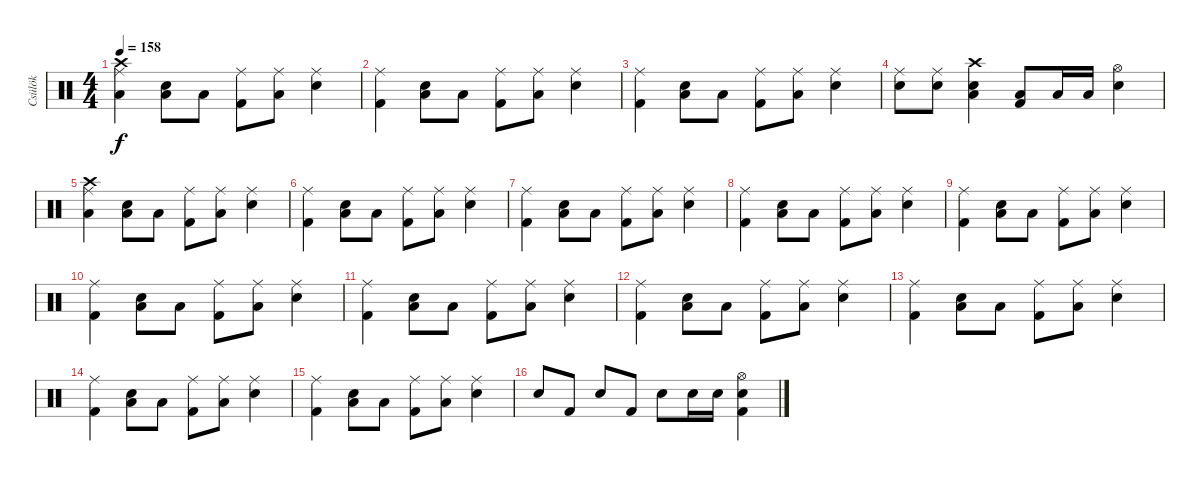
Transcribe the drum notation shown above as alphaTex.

\track ("Csülök" "Csülök") {instrument percussion}
\staff {score}
\articulation defaults
\ts (4 4)
\tempo 158
\clef neutral
\ks c
("Crash high (hit)" "Low Tom (hit)" "Ride (middle)").4{dy f} ("Snare (hit) 2" "Low Tom (hit)").8 "Low Tom (hit)".8 ("Kick (hit) 2" "Ride (middle)").8 ("Low Tom (hit)" "Ride (middle)").8 ("Snare (hit) 2" "Ride (middle)").4 |
("Kick (hit) 2" "Ride (middle)").4 ("Snare (hit) 2" "Low Tom (hit)").8 "Low Tom (hit)".8 ("Kick (hit) 2" "Ride (middle)").8 ("Low Tom (hit)" "Ride (middle)").8 ("Snare (hit) 2" "Ride (middle)").4 |
("Kick (hit) 2" "Ride (middle)").4 ("Snare (hit) 2" "Low Tom (hit)").8 "Low Tom (hit)".8 ("Kick (hit) 2" "Ride (middle)").8 ("Low Tom (hit)" "Ride (middle)").8 ("Snare (hit) 2" "Ride (middle)").4 |
("Snare (hit) 2" "Ride (middle)").8 ("Snare (hit) 2" "Ride (middle)").8 ("Crash high (hit)" "Snare (hit) 2" "Low Tom (hit)").4 ("Kick (hit) 2" "Low Tom (hit)").8 "Low Tom (hit)".16 "Low Tom (hit)".16 ("Hi-Hat (open)" "Snare (hit) 2").4 |
("Crash high (hit)" "Low Tom (hit)" "Ride (middle)").4 ("Snare (hit) 2" "Low Tom (hit)").8 "Low Tom (hit)".8 ("Kick (hit) 2" "Ride (middle)").8 ("Low Tom (hit)" "Ride (middle)").8 ("Snare (hit) 2" "Ride (middle)").4 |
("Kick (hit) 2" "Ride (middle)").4 ("Snare (hit) 2" "Low Tom (hit)").8 "Low Tom (hit)".8 ("Kick (hit) 2" "Ride (middle)").8 ("Low Tom (hit)" "Ride (middle)").8 ("Snare (hit) 2" "Ride (middle)").4 |
("Kick (hit) 2" "Ride (middle)").4 ("Snare (hit) 2" "Low Tom (hit)").8 "Low Tom (hit)".8 ("Kick (hit) 2" "Ride (middle)").8 ("Low Tom (hit)" "Ride (middle)").8 ("Snare (hit) 2" "Ride (middle)").4 |
("Kick (hit) 2" "Ride (middle)").4 ("Snare (hit) 2" "Low Tom (hit)").8 "Low Tom (hit)".8 ("Kick (hit) 2" "Ride (middle)").8 ("Low Tom (hit)" "Ride (middle)").8 ("Snare (hit) 2" "Ride (middle)").4 |
("Kick (hit) 2" "Ride (middle)").4 ("Snare (hit) 2" "Low Tom (hit)").8 "Low Tom (hit)".8 ("Kick (hit) 2" "Ride (middle)").8 ("Low Tom (hit)" "Ride (middle)").8 ("Snare (hit) 2" "Ride (middle)").4 |
("Kick (hit) 2" "Ride (middle)").4 ("Snare (hit) 2" "Low Tom (hit)").8 "Low Tom (hit)".8 ("Kick (hit) 2" "Ride (middle)").8 ("Low Tom (hit)" "Ride (middle)").8 ("Snare (hit) 2" "Ride (middle)").4 |
("Kick (hit) 2" "Ride (middle)").4 ("Snare (hit) 2" "Low Tom (hit)").8 "Low Tom (hit)".8 ("Kick (hit) 2" "Ride (middle)").8 ("Low Tom (hit)" "Ride (middle)").8 ("Snare (hit) 2" "Ride (middle)").4 |
("Kick (hit) 2" "Ride (middle)").4 ("Snare (hit) 2" "Low Tom (hit)").8 "Low Tom (hit)".8 ("Kick (hit) 2" "Ride (middle)").8 ("Low Tom (hit)" "Ride (middle)").8 ("Snare (hit) 2" "Ride (middle)").4 |
("Kick (hit) 2" "Ride (middle)").4 ("Snare (hit) 2" "Low Tom (hit)").8 "Low Tom (hit)".8 ("Kick (hit) 2" "Ride (middle)").8 ("Low Tom (hit)" "Ride (middle)").8 ("Snare (hit) 2" "Ride (middle)").4 |
("Kick (hit) 2" "Ride (middle)").4 ("Snare (hit) 2" "Low Tom (hit)").8 "Low Tom (hit)".8 ("Kick (hit) 2" "Ride (middle)").8 ("Low Tom (hit)" "Ride (middle)").8 ("Snare (hit) 2" "Ride (middle)").4 |
("Kick (hit) 2" "Ride (middle)").4 ("Snare (hit) 2" "Low Tom (hit)").8 "Low Tom (hit)".8 ("Kick (hit) 2" "Ride (middle)").8 ("Low Tom (hit)" "Ride (middle)").8 ("Snare (hit) 2" "Ride (middle)").4 |
"Snare (hit) 2".8 "Kick (hit) 2".8 "Snare (hit) 2".8 "Kick (hit) 2".8 "Snare (hit) 2".8 "Snare (hit) 2".16 "Snare (hit) 2".16 ("Hi-Hat (open)" "Snare (hit) 2" "Kick (hit) 2").4
